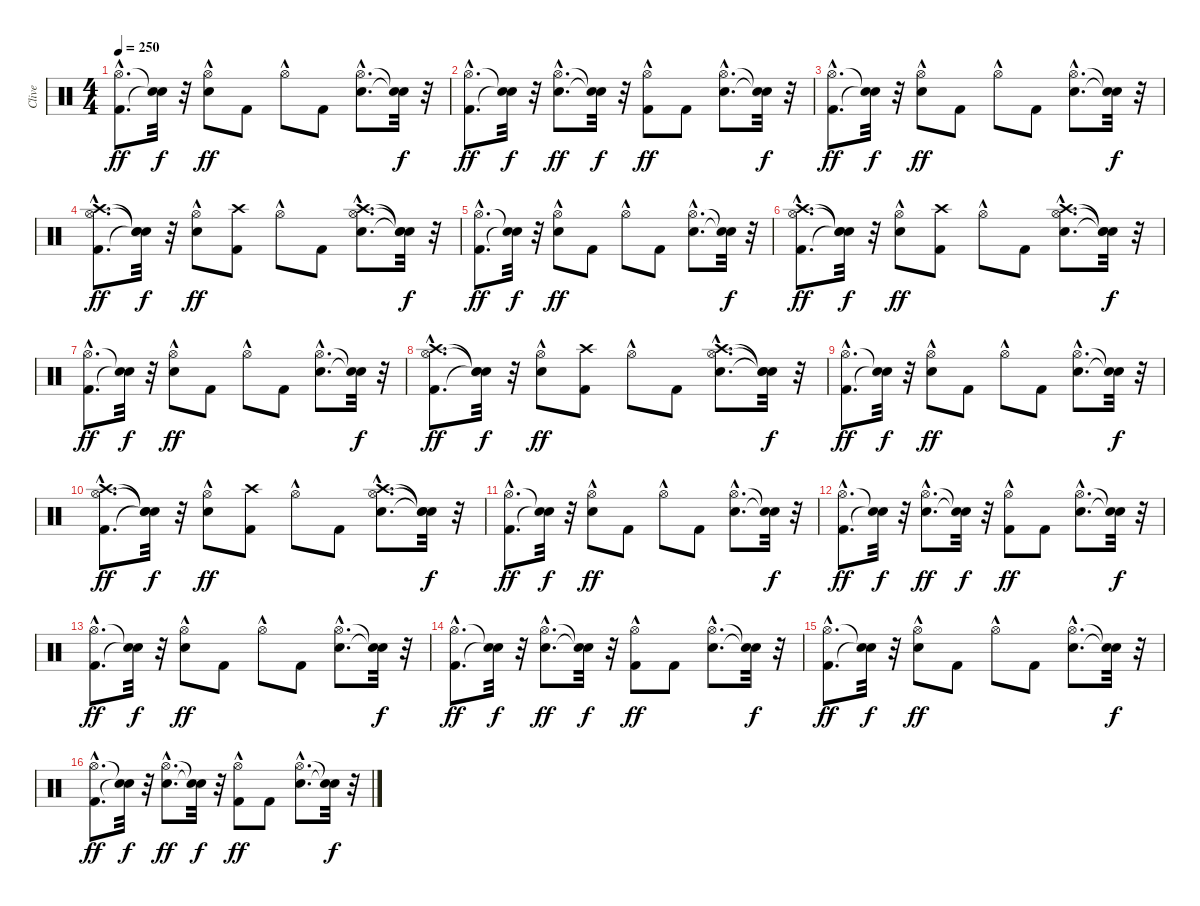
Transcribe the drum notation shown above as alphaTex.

\track ("Clive" "Clive") {instrument percussion}
\staff {score}
\articulation defaults
\ts (4 4)
\tempo 250
\clef neutral
\ks c
("Kick (hit) 2"{hac} "Hi-Hat (open)"{hac}).8{d dy ff} ("Snare (hit)"{t} "Snare (hit)"{t}).32{dy f} r.32 ("Snare (hit) 2" "Hi-Hat (open)"{hac}).8{dy ff} "Kick (hit) 2".8 "Hi-Hat (open)"{hac}.8 "Kick (hit) 2".8 ("Snare (hit) 2"{hac} "Hi-Hat (open)"{hac}).8{d} ("Snare (hit)"{t} "Snare (hit)"{t}).32{dy f} r.32 |
("Kick (hit) 2"{hac} "Hi-Hat (open)"{hac}).8{d dy ff} ("Snare (hit)"{t} "Snare (hit)"{t}).32{dy f} r.32 ("Snare (hit) 2"{hac} "Hi-Hat (open)"{hac}).8{d dy ff} ("Snare (hit)"{t} "Snare (hit)"{t}).32{dy f} r.32 ("Kick (hit) 2" "Hi-Hat (open)"{hac}).8{dy ff} "Kick (hit) 2".8 ("Snare (hit) 2"{hac} "Hi-Hat (open)"{hac}).8{d} ("Snare (hit)"{t} "Snare (hit)"{t}).32{dy f} r.32 |
("Kick (hit) 2"{hac} "Hi-Hat (open)"{hac}).8{d dy ff} ("Snare (hit)"{t} "Snare (hit)"{t}).32{dy f} r.32 ("Snare (hit) 2" "Hi-Hat (open)"{hac}).8{dy ff} "Kick (hit) 2".8 "Hi-Hat (open)"{hac}.8 "Kick (hit) 2".8 ("Snare (hit) 2"{hac} "Hi-Hat (open)"{hac}).8{d} ("Snare (hit)"{t} "Snare (hit)"{t}).32{dy f} r.32 |
("Kick (hit) 2"{hac} "Hi-Hat (open)"{hac} "Crash high (hit)"{hac}).8{d dy ff} ("Snare (hit)"{t} "Snare (hit)"{t} "Snare (hit)"{t}).32{dy f} r.32 ("Snare (hit) 2" "Hi-Hat (open)"{hac}).8{dy ff} ("Kick (hit) 2" "Crash high (hit)").8 "Hi-Hat (open)"{hac}.8 "Kick (hit) 2".8 ("Snare (hit) 2"{hac} "Hi-Hat (open)"{hac} "Crash high (hit)"{hac}).8{d} ("Snare (hit)"{t} "Snare (hit)"{t} "Snare (hit)"{t}).32{dy f} r.32 |
("Kick (hit) 2"{hac} "Hi-Hat (open)"{hac}).8{d dy ff} ("Snare (hit)"{t} "Snare (hit)"{t}).32{dy f} r.32 ("Snare (hit) 2" "Hi-Hat (open)"{hac}).8{dy ff} "Kick (hit) 2".8 "Hi-Hat (open)"{hac}.8 "Kick (hit) 2".8 ("Snare (hit) 2"{hac} "Hi-Hat (open)"{hac}).8{d} ("Snare (hit)"{t} "Snare (hit)"{t}).32{dy f} r.32 |
("Kick (hit) 2"{hac} "Hi-Hat (open)"{hac} "Crash high (hit)"{hac}).8{d dy ff} ("Snare (hit)"{t} "Snare (hit)"{t} "Snare (hit)"{t}).32{dy f} r.32 ("Snare (hit) 2" "Hi-Hat (open)"{hac}).8{dy ff} ("Kick (hit) 2" "Crash high (hit)").8 "Hi-Hat (open)"{hac}.8 "Kick (hit) 2".8 ("Snare (hit) 2"{hac} "Hi-Hat (open)"{hac} "Crash high (hit)"{hac}).8{d} ("Snare (hit)"{t} "Snare (hit)"{t} "Snare (hit)"{t}).32{dy f} r.32 |
("Kick (hit) 2"{hac} "Hi-Hat (open)"{hac}).8{d dy ff} ("Snare (hit)"{t} "Snare (hit)"{t}).32{dy f} r.32 ("Snare (hit) 2" "Hi-Hat (open)"{hac}).8{dy ff} "Kick (hit) 2".8 "Hi-Hat (open)"{hac}.8 "Kick (hit) 2".8 ("Snare (hit) 2"{hac} "Hi-Hat (open)"{hac}).8{d} ("Snare (hit)"{t} "Snare (hit)"{t}).32{dy f} r.32 |
("Kick (hit) 2"{hac} "Hi-Hat (open)"{hac} "Crash high (hit)"{hac}).8{d dy ff} ("Snare (hit)"{t} "Snare (hit)"{t} "Snare (hit)"{t}).32{dy f} r.32 ("Snare (hit) 2" "Hi-Hat (open)"{hac}).8{dy ff} ("Kick (hit) 2" "Crash high (hit)").8 "Hi-Hat (open)"{hac}.8 "Kick (hit) 2".8 ("Snare (hit) 2"{hac} "Hi-Hat (open)"{hac} "Crash high (hit)"{hac}).8{d} ("Snare (hit)"{t} "Snare (hit)"{t} "Snare (hit)"{t}).32{dy f} r.32 |
("Kick (hit) 2"{hac} "Hi-Hat (open)"{hac}).8{d dy ff} ("Snare (hit)"{t} "Snare (hit)"{t}).32{dy f} r.32 ("Snare (hit) 2" "Hi-Hat (open)"{hac}).8{dy ff} "Kick (hit) 2".8 "Hi-Hat (open)"{hac}.8 "Kick (hit) 2".8 ("Snare (hit) 2"{hac} "Hi-Hat (open)"{hac}).8{d} ("Snare (hit)"{t} "Snare (hit)"{t}).32{dy f} r.32 |
("Kick (hit) 2"{hac} "Hi-Hat (open)"{hac} "Crash high (hit)"{hac}).8{d dy ff} ("Snare (hit)"{t} "Snare (hit)"{t} "Snare (hit)"{t}).32{dy f} r.32 ("Snare (hit) 2" "Hi-Hat (open)"{hac}).8{dy ff} ("Kick (hit) 2" "Crash high (hit)").8 "Hi-Hat (open)"{hac}.8 "Kick (hit) 2".8 ("Snare (hit) 2"{hac} "Hi-Hat (open)"{hac} "Crash high (hit)"{hac}).8{d} ("Snare (hit)"{t} "Snare (hit)"{t} "Snare (hit)"{t}).32{dy f} r.32 |
("Kick (hit) 2"{hac} "Hi-Hat (open)"{hac}).8{d dy ff} ("Snare (hit)"{t} "Snare (hit)"{t}).32{dy f} r.32 ("Snare (hit) 2" "Hi-Hat (open)"{hac}).8{dy ff} "Kick (hit) 2".8 "Hi-Hat (open)"{hac}.8 "Kick (hit) 2".8 ("Snare (hit) 2"{hac} "Hi-Hat (open)"{hac}).8{d} ("Snare (hit)"{t} "Snare (hit)"{t}).32{dy f} r.32 |
("Kick (hit) 2"{hac} "Hi-Hat (open)"{hac}).8{d dy ff} ("Snare (hit)"{t} "Snare (hit)"{t}).32{dy f} r.32 ("Snare (hit) 2"{hac} "Hi-Hat (open)"{hac}).8{d dy ff} ("Snare (hit)"{t} "Snare (hit)"{t}).32{dy f} r.32 ("Kick (hit) 2" "Hi-Hat (open)"{hac}).8{dy ff} "Kick (hit) 2".8 ("Snare (hit) 2"{hac} "Hi-Hat (open)"{hac}).8{d} ("Snare (hit)"{t} "Snare (hit)"{t}).32{dy f} r.32 |
("Kick (hit) 2"{hac} "Hi-Hat (open)"{hac}).8{d dy ff} ("Snare (hit)"{t} "Snare (hit)"{t}).32{dy f} r.32 ("Snare (hit) 2" "Hi-Hat (open)"{hac}).8{dy ff} "Kick (hit) 2".8 "Hi-Hat (open)"{hac}.8 "Kick (hit) 2".8 ("Snare (hit) 2"{hac} "Hi-Hat (open)"{hac}).8{d} ("Snare (hit)"{t} "Snare (hit)"{t}).32{dy f} r.32 |
("Kick (hit) 2"{hac} "Hi-Hat (open)"{hac}).8{d dy ff} ("Snare (hit)"{t} "Snare (hit)"{t}).32{dy f} r.32 ("Snare (hit) 2"{hac} "Hi-Hat (open)"{hac}).8{d dy ff} ("Snare (hit)"{t} "Snare (hit)"{t}).32{dy f} r.32 ("Kick (hit) 2" "Hi-Hat (open)"{hac}).8{dy ff} "Kick (hit) 2".8 ("Snare (hit) 2"{hac} "Hi-Hat (open)"{hac}).8{d} ("Snare (hit)"{t} "Snare (hit)"{t}).32{dy f} r.32 |
("Kick (hit) 2"{hac} "Hi-Hat (open)"{hac}).8{d dy ff} ("Snare (hit)"{t} "Snare (hit)"{t}).32{dy f} r.32 ("Snare (hit) 2" "Hi-Hat (open)"{hac}).8{dy ff} "Kick (hit) 2".8 "Hi-Hat (open)"{hac}.8 "Kick (hit) 2".8 ("Snare (hit) 2"{hac} "Hi-Hat (open)"{hac}).8{d} ("Snare (hit)"{t} "Snare (hit)"{t}).32{dy f} r.32 |
("Kick (hit) 2"{hac} "Hi-Hat (open)"{hac}).8{d dy ff} ("Snare (hit)"{t} "Snare (hit)"{t}).32{dy f} r.32 ("Snare (hit) 2"{hac} "Hi-Hat (open)"{hac}).8{d dy ff} ("Snare (hit)"{t} "Snare (hit)"{t}).32{dy f} r.32 ("Kick (hit) 2" "Hi-Hat (open)"{hac}).8{dy ff} "Kick (hit) 2".8 ("Snare (hit) 2"{hac} "Hi-Hat (open)"{hac}).8{d} ("Snare (hit)"{t} "Snare (hit)"{t}).32{dy f} r.32
